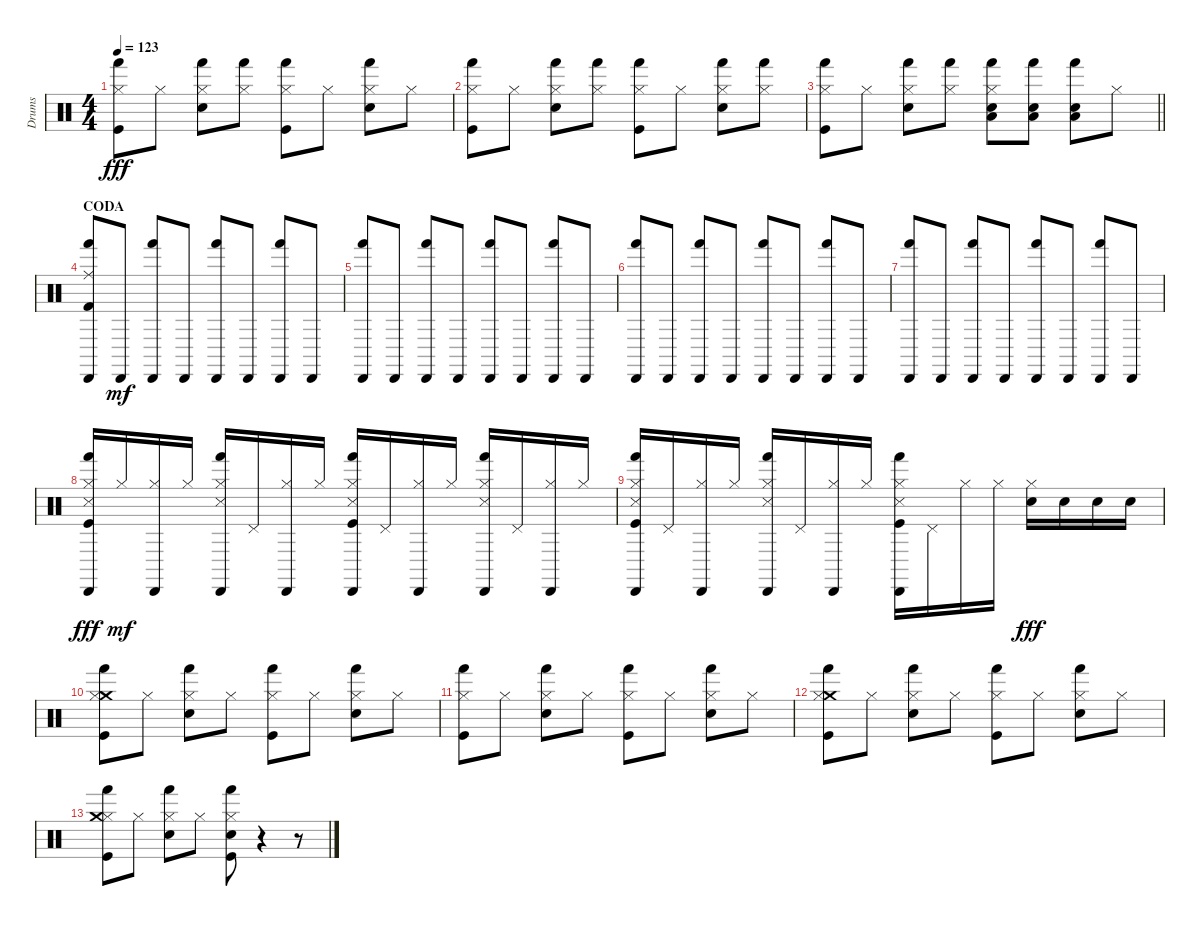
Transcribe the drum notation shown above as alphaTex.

\track ("Drums" "Drums") {instrument percussion}
\staff {score}
\articulation defaults
\ts (4 4)
\tempo 123
\clef neutral
\ks c
("Hi-Hat (closed)" "Kick (hit)" "Hand (hit)").8{dy fff} "Hi-Hat (closed)".8 ("Electric Snare (hit)" "Hand (hit)" "Hi-Hat (closed)").8 ("Hi-Hat (closed)" "Hand (hit)").8 ("Hi-Hat (closed)" "Kick (hit)" "Hand (hit)").8 "Hi-Hat (closed)".8 ("Electric Snare (hit)" "Hand (hit)" "Hi-Hat (closed)").8 "Hi-Hat (closed)".8 |
("Hand (hit)" "Kick (hit)" "Hi-Hat (closed)").8 "Hi-Hat (closed)".8 ("Electric Snare (hit)" "Hand (hit)" "Hi-Hat (closed)").8 ("Hand (hit)" "Hi-Hat (closed)").8 ("Hi-Hat (closed)" "Hand (hit)" "Kick (hit)").8 "Hi-Hat (closed)".8 ("Electric Snare (hit)" "Hand (hit)" "Hi-Hat (closed)").8 ("Hi-Hat (closed)" "Hand (hit)").8 |
\barLineRight lightlight
("Hi-Hat (closed)" "Kick (hit)" "Hand (hit)").8 "Hi-Hat (closed)".8 ("Hi-Hat (closed)" "Hand (hit)" "Electric Snare (hit)").8 ("Hand (hit)" "Hi-Hat (closed)").8 ("Electric Snare (hit)" "Hi-Hat (closed)" "Low Tom (hit)" "Hand (hit)").8 ("Low Tom (hit)" "Electric Snare (hit)" "Hand (hit)").8 ("Hand (hit)" "Low Tom (hit)" "Electric Snare (hit)").8 "Hi-Hat (closed)".8 |
\section ("" "CODA")
("Ride (middle)" "Kick (hit) 2" "Hand (hit)" "Cabasa (hit)").8 "Cabasa (hit)".8{dy mf} ("Hand (hit)" "Cabasa (hit)").8 "Cabasa (hit)".8 ("Hand (hit)" "Cabasa (hit)").8 "Cabasa (hit)".8 ("Hand (hit)" "Cabasa (hit)").8 "Cabasa (hit)".8 |
("Hand (hit)" "Cabasa (hit)").8 "Cabasa (hit)".8 ("Hand (hit)" "Cabasa (hit)").8 "Cabasa (hit)".8 ("Hand (hit)" "Cabasa (hit)").8 "Cabasa (hit)".8 ("Hand (hit)" "Cabasa (hit)").8 "Cabasa (hit)".8 |
("Hand (hit)" "Cabasa (hit)").8 "Cabasa (hit)".8 ("Hand (hit)" "Cabasa (hit)").8 "Cabasa (hit)".8 ("Hand (hit)" "Cabasa (hit)").8 "Cabasa (hit)".8 ("Hand (hit)" "Cabasa (hit)").8 "Cabasa (hit)".8 |
("Hand (hit)" "Cabasa (hit)").8 "Cabasa (hit)".8 ("Hand (hit)" "Cabasa (hit)").8 "Cabasa (hit)".8 ("Hand (hit)" "Cabasa (hit)").8 "Cabasa (hit)".8 ("Hand (hit)" "Cabasa (hit)").8 "Cabasa (hit)".8 |
("Hi-Hat (closed)" "Cabasa (hit)" "Snare (side stick) 3" "Hand (hit)" "Kick (hit)").16{dy fff} "Hi-Hat (closed)".16{dy mf} ("Hi-Hat (closed)" "Cabasa (hit)").16 "Hi-Hat (closed)".16 ("Cabasa (hit)" "Hand (hit)" "Snare (side stick) 3" "Hi-Hat (closed)").16 "Pedal Hi-Hat (hit)".16 ("Cabasa (hit)" "Hi-Hat (closed)").16 "Hi-Hat (closed)".16 ("Cabasa (hit)" "Hand (hit)" "Hi-Hat (closed)" "Kick (hit)" "Snare (side stick) 3").16 "Pedal Hi-Hat (hit)".16 ("Hi-Hat (closed)" "Cabasa (hit)").16 "Hi-Hat (closed)".16 ("Hand (hit)" "Snare (side stick) 3" "Hi-Hat (closed)" "Cabasa (hit)").16 "Pedal Hi-Hat (hit)".16 ("Cabasa (hit)" "Hi-Hat (closed)").16 "Hi-Hat (closed)".16 |
("Hand (hit)" "Kick (hit)" "Cabasa (hit)" "Snare (side stick) 3" "Hi-Hat (closed)").16 "Pedal Hi-Hat (hit)".16 ("Cabasa (hit)" "Hi-Hat (closed)").16 "Hi-Hat (closed)".16 ("Hand (hit)" "Snare (side stick) 3" "Cabasa (hit)" "Hi-Hat (closed)").16 "Pedal Hi-Hat (hit)".16 ("Cabasa (hit)" "Hi-Hat (closed)").16 "Hi-Hat (closed)".16 ("Cabasa (hit)" "Hand (hit)" "Snare (side stick) 3" "Kick (hit)" "Hi-Hat (closed)").16 "Pedal Hi-Hat (hit)".16 "Hi-Hat (closed)".16 "Hi-Hat (closed)".16 ("Electric Snare (hit)" "Hi-Hat (closed)").16{dy fff} "Electric Snare (hit)".16 "Electric Snare (hit)".16 "Electric Snare (hit)".16 |
("Crash medium (hit)" "Hi-Hat (closed)" "Hand (hit)" "Kick (hit)").8 "Hi-Hat (closed)".8 ("Electric Snare (hit)" "Hi-Hat (closed)" "Hand (hit)").8 "Hi-Hat (closed)".8 ("Kick (hit)" "Hi-Hat (closed)" "Hand (hit)").8 "Hi-Hat (closed)".8 ("Electric Snare (hit)" "Hi-Hat (closed)" "Hand (hit)").8 "Hi-Hat (closed)".8 |
("Hi-Hat (closed)" "Kick (hit)" "Hand (hit)").8 "Hi-Hat (closed)".8 ("Hand (hit)" "Hi-Hat (closed)" "Electric Snare (hit)").8 "Hi-Hat (closed)".8 ("Hi-Hat (closed)" "Hand (hit)" "Kick (hit)").8 "Hi-Hat (closed)".8 ("Hand (hit)" "Electric Snare (hit)" "Hi-Hat (closed)").8 "Hi-Hat (closed)".8 |
("Crash medium (hit)" "Kick (hit)" "Hand (hit)" "Hi-Hat (closed)").8 "Hi-Hat (closed)".8 ("Hand (hit)" "Electric Snare (hit)" "Hi-Hat (closed)").8 "Hi-Hat (closed)".8 ("Hand (hit)" "Kick (hit)" "Hi-Hat (closed)").8 "Hi-Hat (closed)".8 ("Electric Snare (hit)" "Hand (hit)" "Hi-Hat (closed)").8 "Hi-Hat (closed)".8 |
("Hi-Hat (closed)" "Kick (hit)" "Crash medium (hit)" "Hand (hit)").8 "Hi-Hat (closed)".8 ("Electric Snare (hit)" "Hi-Hat (closed)" "Hand (hit)").8 "Hi-Hat (closed)".8 ("Hi-Hat (closed)" "Hand (hit)" "Electric Snare (hit)" "Kick (hit)").8 r.4 r.8
